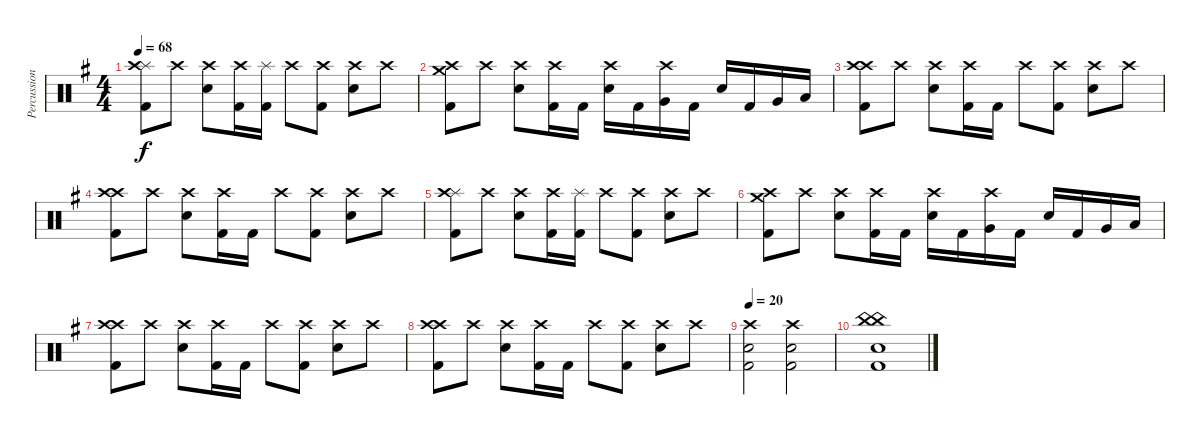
\track ("Percussion" "Percussion") {instrument percussion}
\staff {score}
\articulation defaults
\ts (4 4)
\tempo 68
\clef neutral
\ks eminor
("Splash (hit)" "Crash high (hit)" "Kick (hit) 2").8{dy f} "Crash high (hit)".8 ("Crash high (hit)" "Snare (hit) 2").8 ("Crash high (hit)" "Kick (hit) 2").16 ("Splash (hit)" "Kick (hit) 2").16 "Crash high (hit)".8 ("Crash high (hit)" "Kick (hit) 2").8 ("Crash high (hit)" "Snare (hit) 2").8 "Crash high (hit)".8 |
("Crash medium (hit)" "Crash high (hit)" "Kick (hit) 2").8 "Crash high (hit)".8 ("Crash high (hit)" "Snare (hit) 2").8 ("Crash high (hit)" "Kick (hit) 2").16 "Kick (hit) 2".16 ("Crash high (hit)" "Snare (hit) 2").16 "Kick (hit) 2".16 ("Crash high (hit)" "Very Low Tom (hit)").16 "Kick (hit) 2".16 "Snare (hit) 2".16 "Kick (hit) 2".16 "Very Low Tom (hit)".16 "Low Floor Tom (hit)".16 |
("Crash high (hit)" "Crash high (hit)" "Kick (hit) 2").8 "Crash high (hit)".8 ("Crash high (hit)" "Snare (hit) 2").8 ("Crash high (hit)" "Kick (hit) 2").16 "Kick (hit) 2".16 "Crash high (hit)".8 ("Crash high (hit)" "Kick (hit) 2").8 ("Crash high (hit)" "Snare (hit) 2").8 "Crash high (hit)".8 |
("Crash high (hit)" "Crash high (hit)" "Kick (hit) 2").8 "Crash high (hit)".8 ("Crash high (hit)" "Snare (hit) 2").8 ("Crash high (hit)" "Kick (hit) 2").16 "Kick (hit) 2".16 "Crash high (hit)".8 ("Crash high (hit)" "Kick (hit) 2").8 ("Crash high (hit)" "Snare (hit) 2").8 "Crash high (hit)".8 |
("Splash (hit)" "Crash high (hit)" "Kick (hit) 2").8 "Crash high (hit)".8 ("Crash high (hit)" "Snare (hit) 2").8 ("Crash high (hit)" "Kick (hit) 2").16 ("Splash (hit)" "Kick (hit) 2").16 "Crash high (hit)".8 ("Crash high (hit)" "Kick (hit) 2").8 ("Crash high (hit)" "Snare (hit) 2").8 "Crash high (hit)".8 |
("Crash medium (hit)" "Crash high (hit)" "Kick (hit) 2").8 "Crash high (hit)".8 ("Crash high (hit)" "Snare (hit) 2").8 ("Crash high (hit)" "Kick (hit) 2").16 "Kick (hit) 2".16 ("Crash high (hit)" "Snare (hit) 2").16 "Kick (hit) 2".16 ("Crash high (hit)" "Very Low Tom (hit)").16 "Kick (hit) 2".16 "Snare (hit) 2".16 "Kick (hit) 2".16 "Very Low Tom (hit)".16 "Low Floor Tom (hit)".16 |
("Crash high (hit)" "Crash high (hit)" "Kick (hit) 2").8 "Crash high (hit)".8 ("Crash high (hit)" "Snare (hit) 2").8 ("Crash high (hit)" "Kick (hit) 2").16 "Kick (hit) 2".16 "Crash high (hit)".8 ("Crash high (hit)" "Kick (hit) 2").8 ("Crash high (hit)" "Snare (hit) 2").8 "Crash high (hit)".8 |
("Crash high (hit)" "Crash high (hit)" "Kick (hit) 2").8 "Crash high (hit)".8 ("Crash high (hit)" "Snare (hit) 2").8 ("Crash high (hit)" "Kick (hit) 2").16 "Kick (hit) 2".16 "Crash high (hit)".8 ("Crash high (hit)" "Kick (hit) 2").8 ("Crash high (hit)" "Snare (hit) 2").8 "Crash high (hit)".8 |
\tempo 20
("Crash high (hit)" "Snare (hit) 2" "Kick (hit) 2").2 ("Crash high (hit)" "Snare (hit) 2" "Kick (hit) 2").2 |
("China (hit)" "China (hit)" "Snare (hit) 2" "Kick (hit) 2").1
